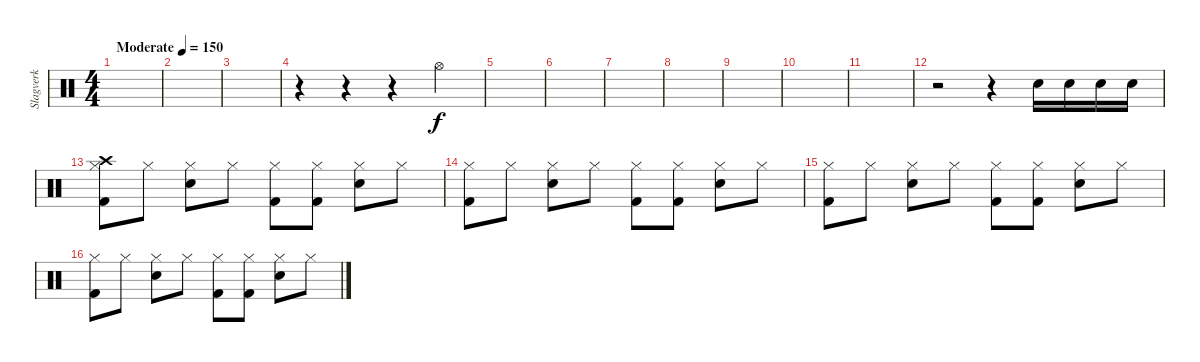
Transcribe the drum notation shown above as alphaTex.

\track ("Slagverk" "Slagverk") {instrument percussion}
\staff {score}
\articulation defaults
\ts (4 4)
\tempo (150 "Moderate")
\clef neutral
\ks c
|
|
|
r.4 r.4 r.4 "Hi-Hat (open)".4 |
|
|
|
|
|
|
|
r.2 r.4 "Snare (hit) 2".16 "Snare (hit) 2".16 "Snare (hit) 2".16 "Snare (hit) 2".16 |
("Hi-Hat (closed)" "Kick (hit) 2" "Crash high (hit)").8 "Hi-Hat (closed)".8 ("Hi-Hat (closed)" "Snare (hit) 2").8 "Hi-Hat (closed)".8 ("Hi-Hat (closed)" "Kick (hit) 2").8 ("Hi-Hat (closed)" "Kick (hit) 2").8 ("Hi-Hat (closed)" "Snare (hit) 2").8 "Hi-Hat (closed)".8 |
("Hi-Hat (closed)" "Kick (hit) 2").8 "Hi-Hat (closed)".8 ("Hi-Hat (closed)" "Snare (hit) 2").8 "Hi-Hat (closed)".8 ("Hi-Hat (closed)" "Kick (hit) 2").8 ("Hi-Hat (closed)" "Kick (hit) 2").8 ("Hi-Hat (closed)" "Snare (hit) 2").8 "Hi-Hat (closed)".8 |
("Hi-Hat (closed)" "Kick (hit) 2").8 "Hi-Hat (closed)".8 ("Hi-Hat (closed)" "Snare (hit) 2").8 "Hi-Hat (closed)".8 ("Hi-Hat (closed)" "Kick (hit) 2").8 ("Hi-Hat (closed)" "Kick (hit) 2").8 ("Hi-Hat (closed)" "Snare (hit) 2").8 "Hi-Hat (closed)".8 |
("Hi-Hat (closed)" "Kick (hit) 2").8 "Hi-Hat (closed)".8 ("Hi-Hat (closed)" "Snare (hit) 2").8 "Hi-Hat (closed)".8 ("Hi-Hat (closed)" "Kick (hit) 2").8 ("Hi-Hat (closed)" "Kick (hit) 2").8 ("Hi-Hat (closed)" "Snare (hit) 2").8 "Hi-Hat (closed)".8
